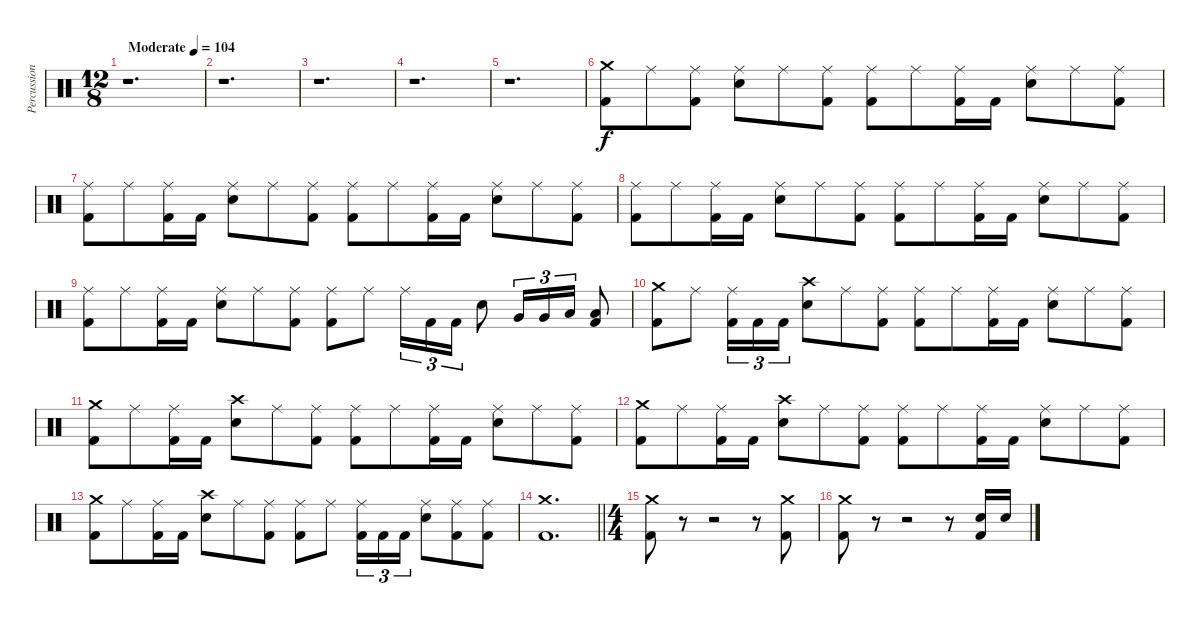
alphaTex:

\track ("Percussion" "Percussion") {instrument percussion}
\staff {score}
\articulation defaults
\ts (12 8)
\tempo (104 "Moderate")
\clef neutral
\ks c
r.1{d dy f} |
r.1{d} |
r.1{d} |
r.1{d} |
r.1{d} |
("Crash medium (hit)" "Kick (hit) 2").8 "Ride (middle)".8 ("Ride (middle)" "Kick (hit) 2").8 ("Ride (middle)" "Electric Snare (hit)").8 "Ride (middle)".8 ("Ride (middle)" "Kick (hit) 2").8 ("Ride (middle)" "Kick (hit) 2").8 "Ride (middle)".8 ("Ride (middle)" "Kick (hit) 2").16 "Kick (hit) 2".16 ("Ride (middle)" "Electric Snare (hit)").8 "Ride (middle)".8 ("Ride (middle)" "Kick (hit) 2").8 |
("Ride (middle)" "Kick (hit) 2").8 "Ride (middle)".8 ("Ride (middle)" "Kick (hit) 2").16 "Kick (hit) 2".16 ("Ride (middle)" "Electric Snare (hit)").8 "Ride (middle)".8 ("Ride (middle)" "Kick (hit) 2").8 ("Ride (middle)" "Kick (hit) 2").8 "Ride (middle)".8 ("Ride (middle)" "Kick (hit) 2").16 "Kick (hit) 2".16 ("Ride (middle)" "Electric Snare (hit)").8 "Ride (middle)".8 ("Ride (middle)" "Kick (hit) 2").8 |
("Ride (middle)" "Kick (hit) 2").8 "Ride (middle)".8 ("Ride (middle)" "Kick (hit) 2").16 "Kick (hit) 2".16 ("Ride (middle)" "Electric Snare (hit)").8 "Ride (middle)".8 ("Ride (middle)" "Kick (hit) 2").8 ("Ride (middle)" "Kick (hit) 2").8 "Ride (middle)".8 ("Ride (middle)" "Kick (hit) 2").16 "Kick (hit) 2".16 ("Ride (middle)" "Electric Snare (hit)").8 "Ride (middle)".8 ("Ride (middle)" "Kick (hit) 2").8 |
("Ride (middle)" "Kick (hit) 2").8 "Ride (middle)".8 ("Ride (middle)" "Kick (hit) 2").16 "Kick (hit) 2".16 ("Ride (middle)" "Electric Snare (hit)").8 "Ride (middle)".8 ("Ride (middle)" "Kick (hit) 2").8 ("Ride (middle)" "Kick (hit) 2").8 "Ride (middle)".8 "Ride (middle)".16{tu (3 2)} "Kick (hit) 2".16{tu (3 2)} "Kick (hit) 2".16{tu (3 2)} "Electric Snare (hit)".8 "Very Low Tom (hit)".16{tu (3 2)} "Very Low Tom (hit)".16{tu (3 2)} "Low Floor Tom (hit)".16{tu (3 2)} ("Low Floor Tom (hit)" "Kick (hit) 2").8 |
("Crash medium (hit)" "Kick (hit) 2").8 "Ride (middle)".8 ("Ride (middle)" "Kick (hit) 2").16{tu (3 2)} "Kick (hit) 2".16{tu (3 2)} "Kick (hit) 2".16{tu (3 2)} ("Crash high (hit)" "Electric Snare (hit)").8 "Ride (middle)".8 ("Ride (middle)" "Kick (hit) 2").8 ("Ride (middle)" "Kick (hit) 2").8 "Ride (middle)".8 ("Ride (middle)" "Kick (hit) 2").16 "Kick (hit) 2".16 ("Ride (middle)" "Electric Snare (hit)").8 "Ride (middle)".8 ("Ride (middle)" "Kick (hit) 2").8 |
("Crash medium (hit)" "Kick (hit) 2").8 "Ride (middle)".8 ("Ride (middle)" "Kick (hit) 2").16 "Kick (hit) 2".16 ("Crash high (hit)" "Electric Snare (hit)").8 "Ride (middle)".8 ("Ride (middle)" "Kick (hit) 2").8 ("Ride (middle)" "Kick (hit) 2").8 "Ride (middle)".8 ("Ride (middle)" "Kick (hit) 2").16 "Kick (hit) 2".16 ("Ride (middle)" "Electric Snare (hit)").8 "Ride (middle)".8 ("Ride (middle)" "Kick (hit) 2").8 |
("Crash medium (hit)" "Kick (hit) 2").8 "Ride (middle)".8 ("Ride (middle)" "Kick (hit) 2").16 "Kick (hit) 2".16 ("Crash high (hit)" "Electric Snare (hit)").8 "Ride (middle)".8 ("Ride (middle)" "Kick (hit) 2").8 ("Ride (middle)" "Kick (hit) 2").8 "Ride (middle)".8 ("Ride (middle)" "Kick (hit) 2").16 "Kick (hit) 2".16 ("Ride (middle)" "Electric Snare (hit)").8 "Ride (middle)".8 ("Ride (middle)" "Kick (hit) 2").8 |
("Crash medium (hit)" "Kick (hit) 2").8 "Ride (middle)".8 ("Ride (middle)" "Kick (hit) 2").16 "Kick (hit) 2".16 ("Crash high (hit)" "Electric Snare (hit)").8 "Ride (middle)".8 ("Ride (middle)" "Kick (hit) 2").8 ("Ride (middle)" "Kick (hit) 2").8 "Ride (middle)".8 ("Ride (middle)" "Kick (hit) 2").16{tu (3 2)} "Kick (hit) 2".16{tu (3 2)} "Kick (hit) 2".16{tu (3 2)} ("Ride (middle)" "Electric Snare (hit)").8 ("Ride (middle)" "Kick (hit) 2").8 ("Ride (middle)" "Kick (hit) 2").8 |
\barLineRight lightlight
("Crash medium (hit)" "Kick (hit) 2").1{d} |
\ts (4 4)
("Crash medium (hit)" "Kick (hit) 2").8 r.8 r.2 r.8 ("Crash medium (hit)" "Kick (hit) 2").8 |
("Crash medium (hit)" "Kick (hit) 2").8 r.8 r.2 r.8 ("Electric Snare (hit)" "Kick (hit) 2").16 "Electric Snare (hit)".16
